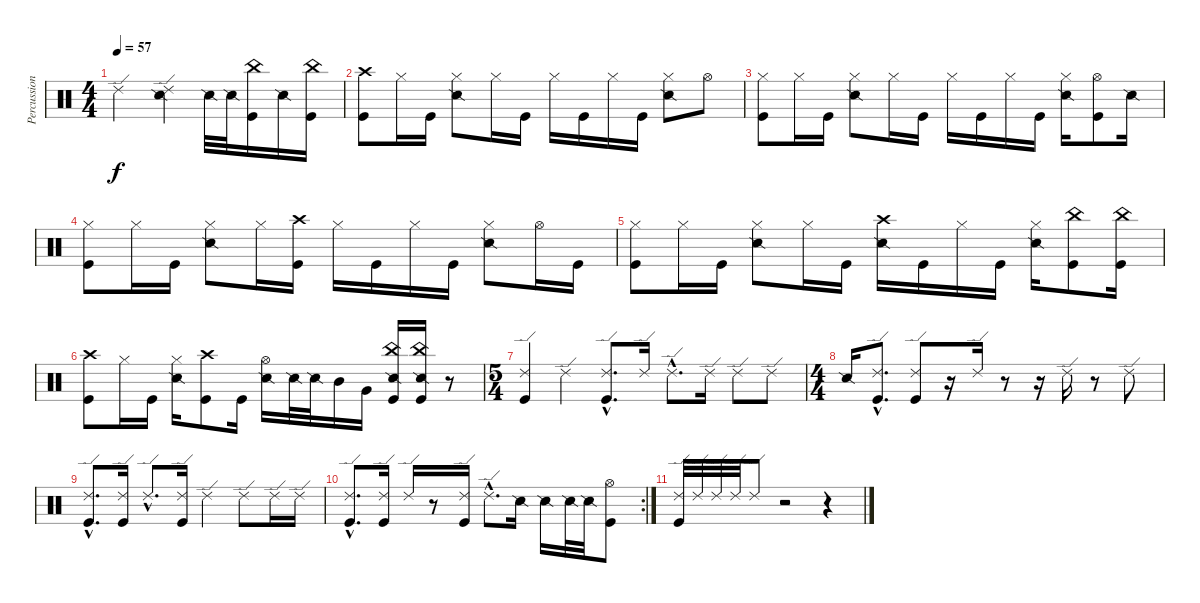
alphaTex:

\track ("Percussion" "Percussion") {instrument percussion}
\staff {score}
\articulation defaults
\ts (4 4)
\tempo 57
\clef neutral
\ks c "Ride (edge) 2".2{dy f}
("Ride (edge) 2" "Snare (side stick) 2").4 "Snare (side stick) 2".32 "Snare (side stick) 2".32 ("China (hit)" "Kick (hit)").16 "Snare (side stick) 2".16 ("China (hit)" "Kick (hit)").16 |
("Crash high (hit)" "Kick (hit)").8 "Hi-Hat (closed)".16 "Kick (hit)".16 ("Hi-Hat (closed)" "Snare (side stick) 2").8 "Hi-Hat (closed)".16 "Kick (hit)".16 "Hi-Hat (closed)".16 "Kick (hit)".16 "Hi-Hat (closed)".16 "Kick (hit)".16 ("Hi-Hat (closed)" "Snare (side stick) 2").8 "Hi-Hat (open)".8 |
("Hi-Hat (closed)" "Kick (hit)").8 "Hi-Hat (closed)".16 "Kick (hit)".16 ("Hi-Hat (closed)" "Snare (side stick) 2").8 "Hi-Hat (closed)".16 "Kick (hit)".16 "Hi-Hat (closed)".16 "Kick (hit)".16 "Hi-Hat (closed)".16 "Kick (hit)".16 ("Hi-Hat (closed)" "Snare (side stick) 2").16 ("Hi-Hat (open)" "Kick (hit)").8 "Snare (side stick) 2".16 |
("Hi-Hat (closed)" "Kick (hit)").8 "Hi-Hat (closed)".16 "Kick (hit)".16 ("Hi-Hat (closed)" "Snare (side stick) 2").8 "Hi-Hat (closed)".16 ("Crash high (hit)" "Kick (hit)").16 "Hi-Hat (closed)".16 "Kick (hit)".16 "Hi-Hat (closed)".16 "Kick (hit)".16 ("Hi-Hat (closed)" "Snare (side stick) 2").8 "Hi-Hat (open)".16 "Kick (hit)".16 |
("Hi-Hat (closed)" "Kick (hit)").8 "Hi-Hat (closed)".16 "Kick (hit)".16 ("Hi-Hat (closed)" "Snare (side stick) 2").8 "Hi-Hat (closed)".16 "Kick (hit)".16 ("Crash high (hit)" "Snare (side stick) 2").16 "Kick (hit)".16 "Hi-Hat (closed)".16 "Kick (hit)".16 ("Hi-Hat (closed)" "Snare (side stick) 2").16 ("China (hit)" "Kick (hit)").8 ("China (hit)" "Kick (hit)").16 |
("Crash high (hit)" "Kick (hit)").8 "Hi-Hat (closed)".16 "Kick (hit)".16 ("Hi-Hat (closed)" "Snare (side stick) 2").16 ("Crash high (hit)" "Kick (hit)").8 "Kick (hit)".16 ("Hi-Hat (open)" "Snare (side stick) 2").16 "Snare (side stick) 2".32 "Snare (side stick) 2".32 "Mid Tom (hit)".16 "Very Low Tom (hit)".16 ("China (hit)" "Snare (side stick) 2" "Kick (hit)").16 ("China (hit)" "Snare (side stick) 2" "Kick (hit)").16 r.8 |
\ts (5 4)
("Ride (edge) 2" "Kick (hit)").4 "Ride (edge) 2".4 ("Ride (edge) 2"{hac} "Kick (hit)"{hac}).8{d} "Ride (edge) 2".16 "Ride (edge) 2"{hac}.8{d} "Ride (edge) 2".16 "Ride (edge) 2".8 "Ride (edge) 2".8 |
\ts (4 4)
"Snare (side stick) 2".16 ("Ride (edge) 2"{hac} "Kick (hit)"{hac}).8{d} ("Ride (edge) 2" "Kick (hit)").8 r.16 "Ride (edge) 2".16 r.8 r.16 "Ride (edge) 2".16 r.8 "Ride (edge) 2".8 |
("Ride (edge) 2"{hac} "Kick (hit)"{hac}).8{d} ("Ride (edge) 2" "Kick (hit)").16 "Ride (edge) 2"{hac}.8{d} ("Ride (edge) 2" "Kick (hit)").16 "Ride (edge) 2".4 "Ride (edge) 2".8 "Ride (edge) 2".16 "Ride (edge) 2".16 |
\rc 2
("Ride (edge) 2"{hac} "Kick (hit)"{hac}).8{d} ("Ride (edge) 2" "Kick (hit)").16 "Ride (edge) 2".16 r.8 ("Ride (edge) 2" "Kick (hit)").16 "Ride (edge) 2"{hac}.8{d} "Snare (side stick) 2".16 "Snare (side stick) 2".16 "Snare (side stick) 2".32 "Snare (side stick) 2".32 ("Hi-Hat (open)" "Kick (hit)").8 |
("Ride (edge) 2" "Kick (hit)").32 "Ride (edge) 2".32 "Ride (edge) 2".32 "Ride (edge) 2".32 "Ride (edge) 2".8 r.2 r.4
